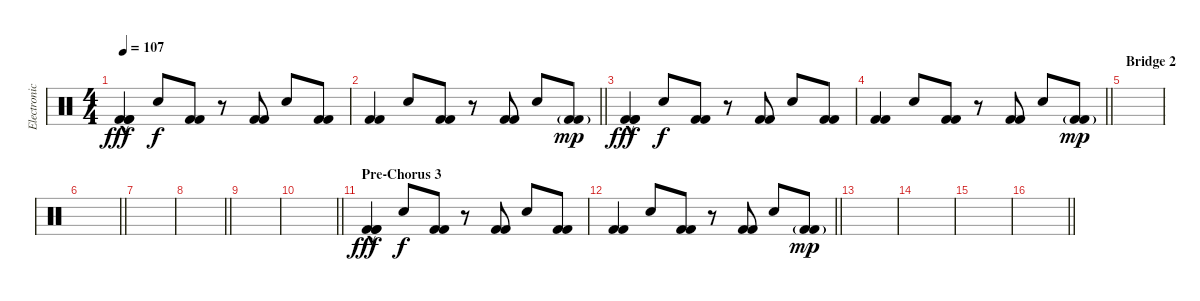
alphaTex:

\track ("Electronic Drums" "Electronic") {instrument percussion}
\staff {score}
\articulation defaults
\ts (4 4)
\tempo 107
\clef neutral
\ks c
("Kick (hit) 2"{hac} "Kick (hit) 2"{hac} "Kick (hit) 2"{hac}).4{dy fff} "Hand Clap (hit)".8{dy f} ("Kick (hit) 2" "Kick (hit) 2").8 r.8 ("Kick (hit) 2" "Kick (hit) 2").8 "Hand Clap (hit)".8 ("Kick (hit) 2" "Kick (hit) 2").8 |
\barLineRight lightlight
("Kick (hit) 2" "Kick (hit) 2").4 "Hand Clap (hit)".8 ("Kick (hit) 2" "Kick (hit) 2").8 r.8 ("Kick (hit) 2" "Kick (hit) 2").8 "Hand Clap (hit)".8 ("Kick (hit) 2"{g} "Kick (hit) 2"{g}).8{dy mp} |
("Kick (hit) 2"{hac} "Kick (hit) 2"{hac} "Kick (hit) 2"{hac}).4{dy fff} "Hand Clap (hit)".8{dy f} ("Kick (hit) 2" "Kick (hit) 2").8 r.8 ("Kick (hit) 2" "Kick (hit) 2").8 "Hand Clap (hit)".8 ("Kick (hit) 2" "Kick (hit) 2").8 |
\barLineRight lightlight
("Kick (hit) 2" "Kick (hit) 2").4 "Hand Clap (hit)".8 ("Kick (hit) 2" "Kick (hit) 2").8 r.8 ("Kick (hit) 2" "Kick (hit) 2").8 "Hand Clap (hit)".8 ("Kick (hit) 2"{g} "Kick (hit) 2"{g}).8{dy mp} |
\section ("" "Bridge 2")
|
\barLineRight lightlight
|
|
\barLineRight lightlight
|
|
\barLineRight lightlight
|
\section ("" "Pre-Chorus 3")
("Kick (hit) 2"{hac} "Kick (hit) 2"{hac} "Kick (hit) 2"{hac}).4{dy fff} "Hand Clap (hit)".8{dy f} ("Kick (hit) 2" "Kick (hit) 2").8 r.8 ("Kick (hit) 2" "Kick (hit) 2").8 "Hand Clap (hit)".8 ("Kick (hit) 2" "Kick (hit) 2").8 |
\barLineRight lightlight
("Kick (hit) 2" "Kick (hit) 2").4 "Hand Clap (hit)".8 ("Kick (hit) 2" "Kick (hit) 2").8 r.8 ("Kick (hit) 2" "Kick (hit) 2").8 "Hand Clap (hit)".8 ("Kick (hit) 2"{g} "Kick (hit) 2"{g}).8{dy mp} |
|
|
|
\barLineRight lightlight
